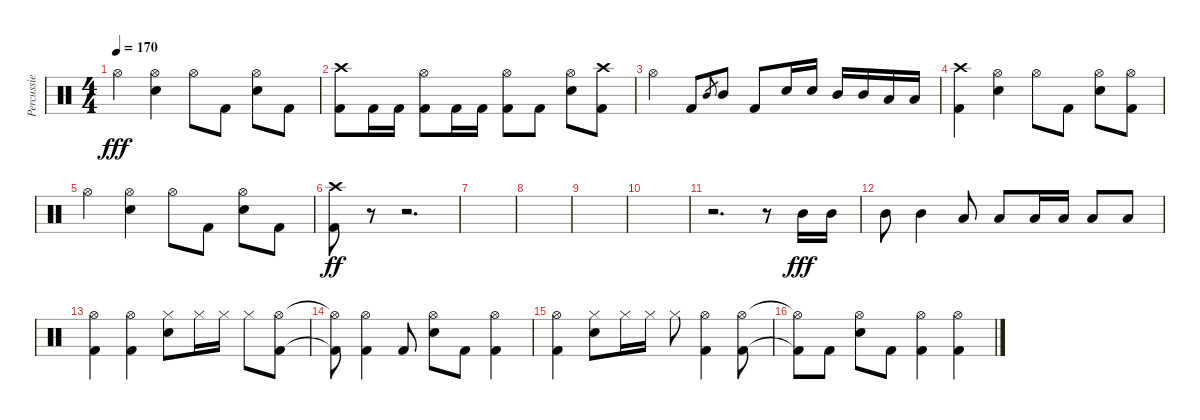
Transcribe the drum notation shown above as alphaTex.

\track ("Percussie" "Percussie") {instrument percussion}
\staff {score}
\articulation defaults
\ts (4 4)
\tempo 170
\clef neutral
\ks c "Hi-Hat (open)".4{dy fff}
("Hi-Hat (open)" "Electric Snare (hit)").4 "Hi-Hat (open)".8 "Kick (hit) 2".8 ("Hi-Hat (open)" "Electric Snare (hit)").8 "Kick (hit) 2".8 |
("Crash high (hit)" "Kick (hit) 2").8 "Kick (hit) 2".16 "Kick (hit) 2".16 ("Hi-Hat (open)" "Kick (hit) 2").8 "Kick (hit) 2".16 "Kick (hit) 2".16 ("Hi-Hat (open)" "Kick (hit) 2").8 "Kick (hit) 2".8 ("Hi-Hat (open)" "Electric Snare (hit)").8 ("Crash high (hit)" "Kick (hit) 2").8 |
"Hi-Hat (open)".4 "Kick (hit) 2".8 "Mid Tom (hit)".8{gr} "Mid Tom (hit)".8 "Kick (hit) 2".8 "Electric Snare (hit)".16 "Electric Snare (hit)".16 "Mid Tom (hit)".16 "Mid Tom (hit)".16 "Low Tom (hit)".16 "Low Tom (hit)".16 |
("Crash high (hit)" "Kick (hit) 2").4 ("Hi-Hat (open)" "Electric Snare (hit)").4 "Hi-Hat (open)".8 "Kick (hit) 2".8 ("Hi-Hat (open)" "Electric Snare (hit)").8 ("Hi-Hat (open)" "Kick (hit) 2").8 |
"Hi-Hat (open)".4 ("Hi-Hat (open)" "Electric Snare (hit)").4 "Hi-Hat (open)".8 "Kick (hit) 2".8 ("Hi-Hat (open)" "Electric Snare (hit)").8 "Kick (hit) 2".8 |
("Crash high (hit)" "Kick (hit) 2").8{dy ff} r.8{volume 2} r.2{d} |
|
|
|
|
r.2{d} r.8 "Mid Tom (hit)".16{dy fff volume 16} "Mid Tom (hit)".16 |
"Mid Tom (hit)".8 "Mid Tom (hit)".4 "Low Tom (hit)".8 "Low Tom (hit)".8 "Low Floor Tom (hit)".16 "Low Floor Tom (hit)".16 "Low Floor Tom (hit)".8 "Low Floor Tom (hit)".8 |
("Hi-Hat (open)" "Kick (hit) 2").4 ("Hi-Hat (open)" "Kick (hit) 2").4 ("Hi-Hat (closed)" "Electric Snare (hit)").8 "Hi-Hat (closed)".16 "Hi-Hat (closed)".16 "Hi-Hat (closed)".8 ("Hi-Hat (open)" "Kick (hit) 2").8 |
("Hi-Hat (open)"{t} "Kick (hit) 2"{t}).8 ("Hi-Hat (open)" "Kick (hit) 2").4 "Kick (hit) 2".8 ("Hi-Hat (open)" "Electric Snare (hit)").8 "Kick (hit) 2".8 ("Hi-Hat (open)" "Kick (hit) 2").4 |
("Hi-Hat (open)" "Kick (hit) 2").4 ("Hi-Hat (closed)" "Electric Snare (hit)").8 "Hi-Hat (closed)".16 "Hi-Hat (closed)".16 "Hi-Hat (closed)".8 ("Hi-Hat (open)" "Kick (hit) 2").4 ("Hi-Hat (open)" "Kick (hit) 2").8 |
("Hi-Hat (open)"{t} "Kick (hit) 2"{t}).8 "Kick (hit) 2".8 ("Hi-Hat (open)" "Electric Snare (hit)").8 "Kick (hit) 2".8 ("Hi-Hat (open)" "Kick (hit) 2").4 ("Hi-Hat (open)" "Kick (hit) 2").4
